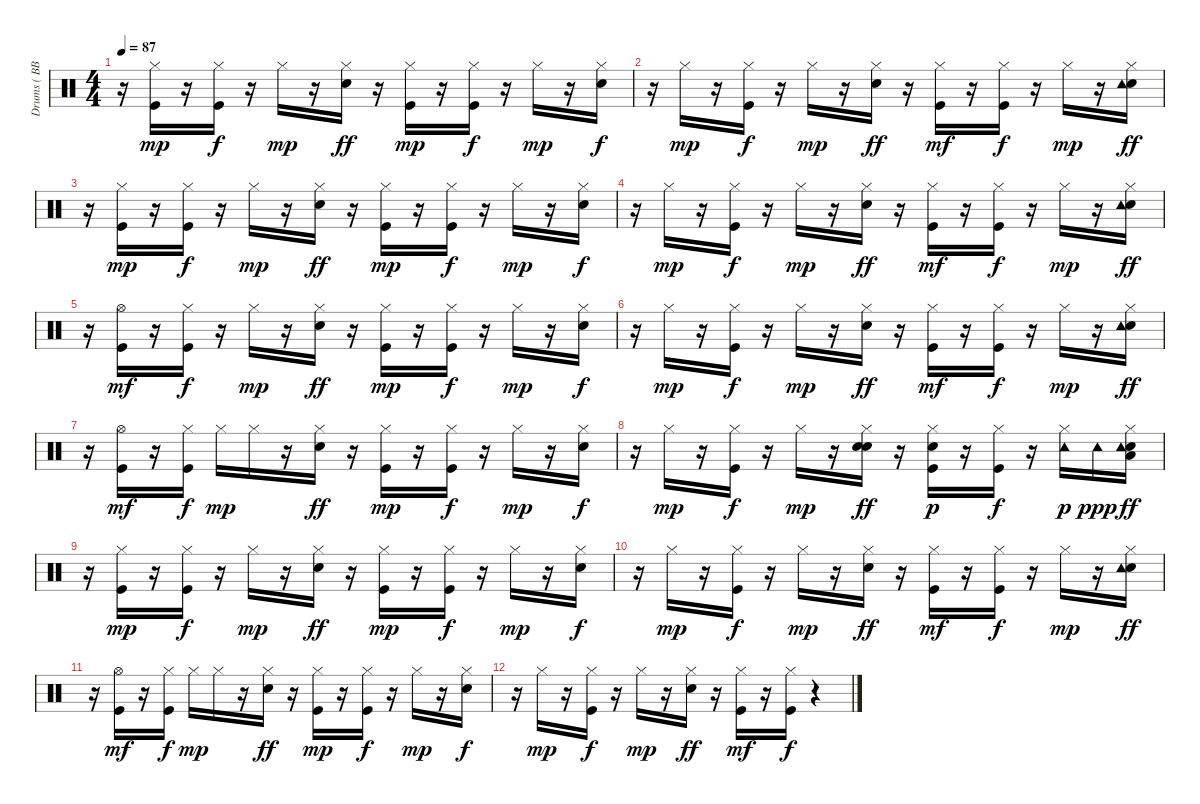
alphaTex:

\track ("Drums ( BB )" "Drums ( BB") {instrument percussion}
\staff {score}
\articulation defaults
\ts (4 4)
\tempo 87
\clef neutral
\ks c
r.16{dy ff} ("Kick (hit)" "Hi-Hat (closed)").16{dy mp} r.16 ("Kick (hit)" "Hi-Hat (closed)").16{dy f} r.16 "Hi-Hat (closed)".16{dy mp} r.16 ("Snare (hit) 2" "Hi-Hat (closed)").16{dy ff} r.16 ("Kick (hit)" "Hi-Hat (closed)").16{dy mp} r.16 ("Kick (hit)" "Hi-Hat (closed)").16{dy f} r.16 "Hi-Hat (closed)".16{dy mp} r.16 ("Snare (hit) 2" "Hi-Hat (closed)").16{dy f} |
r.16 "Hi-Hat (closed)".16{dy mp} r.16 ("Kick (hit)" "Hi-Hat (closed)").16{dy f} r.16 "Hi-Hat (closed)".16{dy mp} r.16 ("Snare (hit) 2" "Hi-Hat (closed)").16{dy ff} r.16 ("Kick (hit)" "Hi-Hat (closed)").16{dy mf} r.16 ("Kick (hit)" "Hi-Hat (closed)").16{dy f} r.16 "Hi-Hat (closed)".16{dy mp} r.16 ("Snare (hit) 2" "Hi-Hat (closed)" "Tambourine (hit)").16{dy ff} |
r.16 ("Kick (hit)" "Hi-Hat (closed)").16{dy mp} r.16 ("Kick (hit)" "Hi-Hat (closed)").16{dy f} r.16 "Hi-Hat (closed)".16{dy mp} r.16 ("Snare (hit) 2" "Hi-Hat (closed)").16{dy ff} r.16 ("Kick (hit)" "Hi-Hat (closed)").16{dy mp} r.16 ("Kick (hit)" "Hi-Hat (closed)").16{dy f} r.16 "Hi-Hat (closed)".16{dy mp} r.16 ("Snare (hit) 2" "Hi-Hat (closed)").16{dy f} |
r.16 "Hi-Hat (closed)".16{dy mp} r.16 ("Kick (hit)" "Hi-Hat (closed)").16{dy f} r.16 "Hi-Hat (closed)".16{dy mp} r.16 ("Snare (hit) 2" "Hi-Hat (closed)").16{dy ff} r.16 ("Kick (hit)" "Hi-Hat (closed)").16{dy mf} r.16 ("Kick (hit)" "Hi-Hat (closed)").16{dy f} r.16 "Hi-Hat (closed)".16{dy mp} r.16 ("Snare (hit) 2" "Hi-Hat (closed)" "Tambourine (hit)").16{dy ff} |
r.16 ("Kick (hit)" "Hi-Hat (open)").16{dy mf} r.16 ("Kick (hit)" "Hi-Hat (closed)").16{dy f} r.16 "Hi-Hat (closed)".16{dy mp} r.16 ("Snare (hit) 2" "Hi-Hat (closed)").16{dy ff} r.16 ("Kick (hit)" "Hi-Hat (closed)").16{dy mp} r.16 ("Kick (hit)" "Hi-Hat (closed)").16{dy f} r.16 "Hi-Hat (closed)".16{dy mp} r.16 ("Snare (hit) 2" "Hi-Hat (closed)").16{dy f} |
r.16 "Hi-Hat (closed)".16{dy mp} r.16 ("Kick (hit)" "Hi-Hat (closed)").16{dy f} r.16 "Hi-Hat (closed)".16{dy mp} r.16 ("Snare (hit) 2" "Hi-Hat (closed)").16{dy ff} r.16 ("Kick (hit)" "Hi-Hat (closed)").16{dy mf} r.16 ("Kick (hit)" "Hi-Hat (closed)").16{dy f} r.16 "Hi-Hat (closed)".16{dy mp} r.16 ("Snare (hit) 2" "Hi-Hat (closed)" "Tambourine (hit)").16{dy ff} |
r.16 ("Kick (hit)" "Hi-Hat (open)").16{dy mf} r.16 ("Kick (hit)" "Hi-Hat (closed)").16{dy f} "Hi-Hat (closed)".16{dy mp} "Hi-Hat (closed)".16 r.16 ("Snare (hit) 2" "Hi-Hat (closed)").16{dy ff} r.16 ("Kick (hit)" "Hi-Hat (closed)").16{dy mp} r.16 ("Kick (hit)" "Hi-Hat (closed)").16{dy f} r.16 "Hi-Hat (closed)".16{dy mp} r.16 ("Snare (hit) 2" "Hi-Hat (closed)").16{dy f} |
r.16 "Hi-Hat (closed)".16{dy mp} r.16 ("Kick (hit)" "Hi-Hat (closed)").16{dy f} r.16 "Hi-Hat (closed)".16{dy mp} r.16 ("Snare (hit) 2" "Hi-Hat (closed)" "Hand Clap (hit)").16{dy ff} r.16 ("Kick (hit)" "Hi-Hat (closed)" "Hand Clap (hit)").16{dy p} r.16 ("Kick (hit)" "Hi-Hat (closed)").16{dy f} r.16 ("Hi-Hat (closed)" "Tambourine (hit)").16{dy p} "Tambourine (hit)".16{dy ppp} ("Snare (hit) 2" "Hi-Hat (closed)" "Low Floor Tom (hit)" "Tambourine (hit)").16{dy ff} |
r.16 ("Kick (hit)" "Hi-Hat (closed)").16{dy mp} r.16 ("Kick (hit)" "Hi-Hat (closed)").16{dy f} r.16 "Hi-Hat (closed)".16{dy mp} r.16 ("Snare (hit) 2" "Hi-Hat (closed)").16{dy ff} r.16 ("Kick (hit)" "Hi-Hat (closed)").16{dy mp} r.16 ("Kick (hit)" "Hi-Hat (closed)").16{dy f} r.16 "Hi-Hat (closed)".16{dy mp} r.16 ("Snare (hit) 2" "Hi-Hat (closed)").16{dy f} |
r.16 "Hi-Hat (closed)".16{dy mp} r.16 ("Kick (hit)" "Hi-Hat (closed)").16{dy f} r.16 "Hi-Hat (closed)".16{dy mp} r.16 ("Snare (hit) 2" "Hi-Hat (closed)").16{dy ff} r.16 ("Kick (hit)" "Hi-Hat (closed)").16{dy mf} r.16 ("Kick (hit)" "Hi-Hat (closed)").16{dy f} r.16 "Hi-Hat (closed)".16{dy mp} r.16 ("Snare (hit) 2" "Hi-Hat (closed)" "Tambourine (hit)").16{dy ff} |
r.16 ("Kick (hit)" "Hi-Hat (open)").16{dy mf} r.16 ("Kick (hit)" "Hi-Hat (closed)").16{dy f} "Hi-Hat (closed)".16{dy mp} "Hi-Hat (closed)".16 r.16 ("Snare (hit) 2" "Hi-Hat (closed)").16{dy ff} r.16 ("Kick (hit)" "Hi-Hat (closed)").16{dy mp} r.16 ("Kick (hit)" "Hi-Hat (closed)").16{dy f} r.16 "Hi-Hat (closed)".16{dy mp} r.16 ("Snare (hit) 2" "Hi-Hat (closed)").16{dy f} |
r.16 "Hi-Hat (closed)".16{dy mp} r.16 ("Kick (hit)" "Hi-Hat (closed)").16{dy f} r.16 "Hi-Hat (closed)".16{dy mp} r.16 ("Snare (hit) 2" "Hi-Hat (closed)").16{dy ff} r.16 ("Kick (hit)" "Hi-Hat (closed)").16{dy mf} r.16 ("Kick (hit)" "Hi-Hat (closed)").16{dy f} r.4
